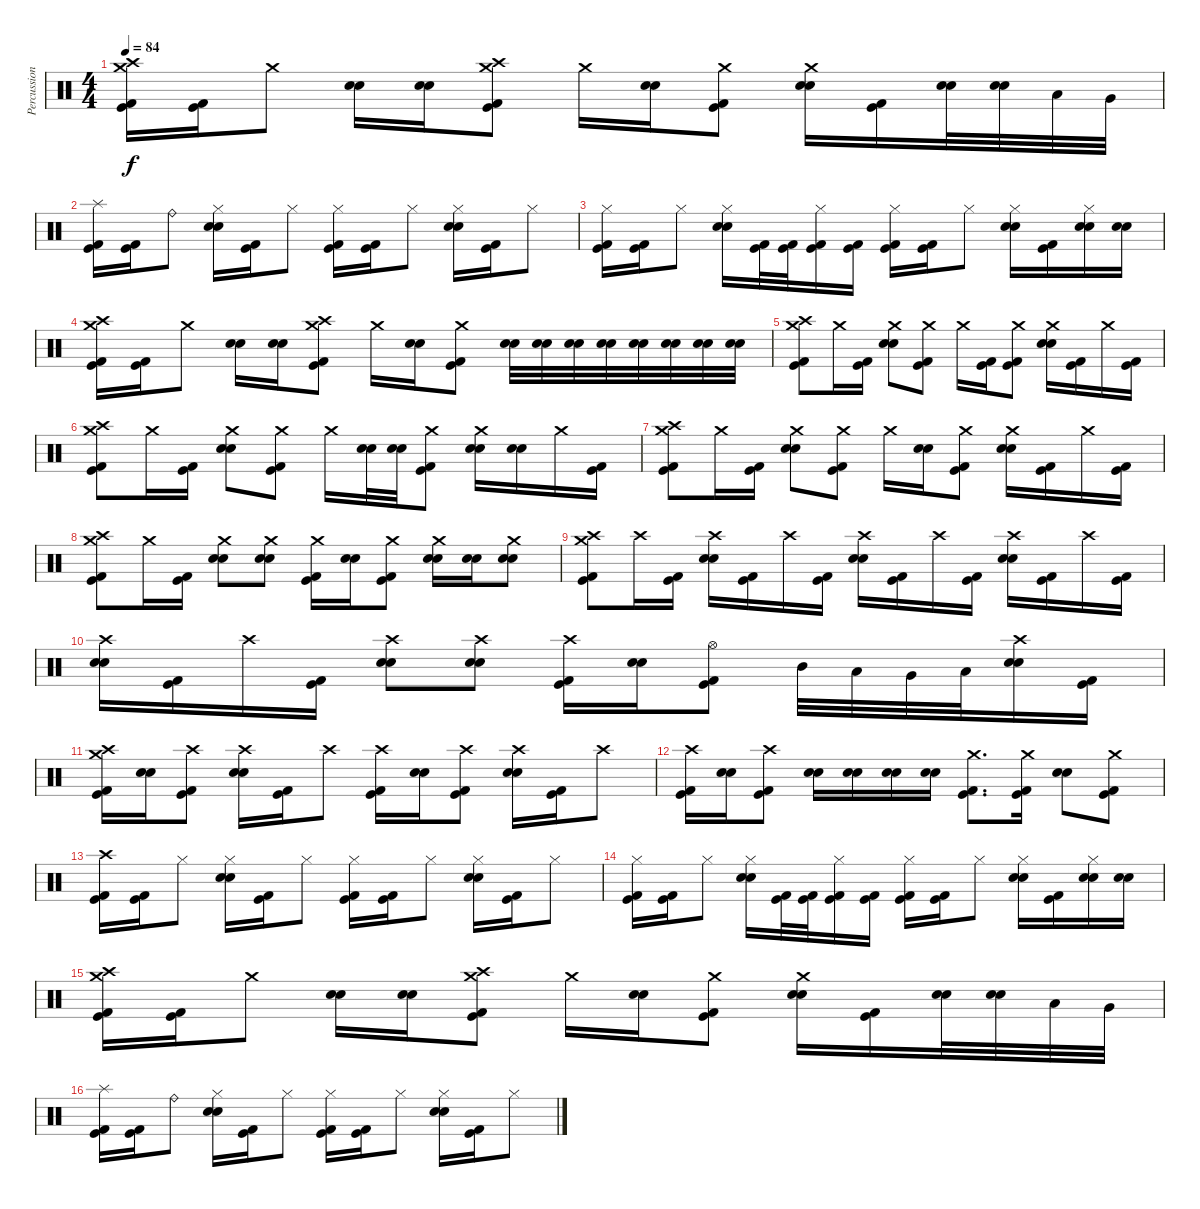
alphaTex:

\track ("Percussion" "Percussion") {instrument percussion}
\staff {score}
\articulation defaults
\ts (4 4)
\tempo 84
\clef neutral
\ks c
("Crash high (hit)" "Crash medium (hit)" "Kick (hit)" "Kick (hit) 2").16{dy f} ("Kick (hit)" "Kick (hit) 2").16 "Crash medium (hit)".8 ("Electric Snare (hit)" "Snare (hit) 2").16 ("Electric Snare (hit)" "Snare (hit) 2").16 ("Crash high (hit)" "Crash medium (hit)" "Kick (hit)" "Kick (hit) 2").8 "Crash medium (hit)".16 ("Electric Snare (hit)" "Snare (hit) 2").16 ("Crash medium (hit)" "Kick (hit)" "Kick (hit) 2").8 ("Crash medium (hit)" "Electric Snare (hit)" "Snare (hit) 2").16 ("Kick (hit)" "Kick (hit) 2").16 ("Electric Snare (hit)" "Snare (hit) 2").32 ("Electric Snare (hit)" "Snare (hit) 2").32 "Low Tom (hit)".32 "Very Low Tom (hit)".32 |
("Splash (hit)" "Kick (hit)" "Kick (hit) 2").16{balance 2} ("Kick (hit)" "Kick (hit) 2").16 "Ride (bell)".8{balance 14} ("Hi-Hat (closed)" "Electric Snare (hit)" "Snare (hit) 2").16{balance 8} ("Kick (hit)" "Kick (hit) 2").16 "Hi-Hat (closed)".8 ("Hi-Hat (closed)" "Kick (hit)" "Kick (hit) 2").16 ("Kick (hit)" "Kick (hit) 2").16 "Hi-Hat (closed)".8 ("Hi-Hat (closed)" "Electric Snare (hit)" "Snare (hit) 2").16 ("Kick (hit)" "Kick (hit) 2").16 "Hi-Hat (closed)".8 |
("Hi-Hat (closed)" "Kick (hit)" "Kick (hit) 2").16 ("Kick (hit)" "Kick (hit) 2").16 "Hi-Hat (closed)".8 ("Hi-Hat (closed)" "Electric Snare (hit)" "Snare (hit) 2").16 ("Kick (hit)" "Kick (hit) 2").32 ("Kick (hit)" "Kick (hit) 2").32 ("Hi-Hat (closed)" "Kick (hit)" "Kick (hit) 2").16 ("Kick (hit)" "Kick (hit) 2").16 ("Hi-Hat (closed)" "Kick (hit)" "Kick (hit) 2").16 ("Kick (hit)" "Kick (hit) 2").16 "Hi-Hat (closed)".8 ("Hi-Hat (closed)" "Electric Snare (hit)" "Snare (hit) 2").16 ("Kick (hit)" "Kick (hit) 2").16 ("Hi-Hat (closed)" "Electric Snare (hit)" "Snare (hit) 2").16 ("Electric Snare (hit)" "Snare (hit) 2").16 |
("Crash high (hit)" "Crash medium (hit)" "Kick (hit)" "Kick (hit) 2").16 ("Kick (hit)" "Kick (hit) 2").16 "Crash medium (hit)".8 ("Electric Snare (hit)" "Snare (hit) 2").16 ("Electric Snare (hit)" "Snare (hit) 2").16 ("Crash high (hit)" "Crash medium (hit)" "Kick (hit)" "Kick (hit) 2").8 "Crash medium (hit)".16 ("Electric Snare (hit)" "Snare (hit) 2").16 ("Crash medium (hit)" "Kick (hit)" "Kick (hit) 2").8 ("Electric Snare (hit)" "Snare (hit) 2").32 ("Electric Snare (hit)" "Snare (hit) 2").32 ("Electric Snare (hit)" "Snare (hit) 2").32 ("Electric Snare (hit)" "Snare (hit) 2").32 ("Electric Snare (hit)" "Snare (hit) 2").32 ("Electric Snare (hit)" "Snare (hit) 2").32 ("Electric Snare (hit)" "Snare (hit) 2").32 ("Electric Snare (hit)" "Snare (hit) 2").32 |
("Crash high (hit)" "Crash medium (hit)" "Kick (hit)" "Kick (hit) 2").8 "Crash medium (hit)".16 ("Kick (hit)" "Kick (hit) 2").16 ("Crash medium (hit)" "Electric Snare (hit)" "Snare (hit) 2").8 ("Crash medium (hit)" "Kick (hit)" "Kick (hit) 2").8 "Crash medium (hit)".16 ("Kick (hit)" "Kick (hit) 2").16 ("Crash medium (hit)" "Kick (hit)" "Kick (hit) 2").8 ("Crash medium (hit)" "Electric Snare (hit)" "Snare (hit) 2").16 ("Kick (hit)" "Kick (hit) 2").16 "Crash medium (hit)".16 ("Kick (hit)" "Kick (hit) 2").16 |
("Crash high (hit)" "Crash medium (hit)" "Kick (hit)" "Kick (hit) 2").8 "Crash medium (hit)".16 ("Kick (hit)" "Kick (hit) 2").16 ("Crash medium (hit)" "Electric Snare (hit)" "Snare (hit) 2").8 ("Crash medium (hit)" "Kick (hit)" "Kick (hit) 2").8 "Crash medium (hit)".16 ("Electric Snare (hit)" "Snare (hit) 2").32 ("Electric Snare (hit)" "Snare (hit) 2").32 ("Crash medium (hit)" "Kick (hit)" "Kick (hit) 2").8 ("Crash medium (hit)" "Electric Snare (hit)" "Snare (hit) 2").16 ("Electric Snare (hit)" "Snare (hit) 2").16 "Crash medium (hit)".16 ("Kick (hit)" "Kick (hit) 2").16 |
("Crash high (hit)" "Crash medium (hit)" "Kick (hit)" "Kick (hit) 2").8 "Crash medium (hit)".16 ("Kick (hit)" "Kick (hit) 2").16 ("Crash medium (hit)" "Electric Snare (hit)" "Snare (hit) 2").8 ("Crash medium (hit)" "Kick (hit)" "Kick (hit) 2").8 "Crash medium (hit)".16 ("Electric Snare (hit)" "Snare (hit) 2").16 ("Crash medium (hit)" "Kick (hit)" "Kick (hit) 2").8 ("Crash medium (hit)" "Electric Snare (hit)" "Snare (hit) 2").16 ("Kick (hit)" "Kick (hit) 2").16 "Crash medium (hit)".16 ("Kick (hit)" "Kick (hit) 2").16 |
("Crash high (hit)" "Crash medium (hit)" "Kick (hit)" "Kick (hit) 2").8 "Crash medium (hit)".16 ("Kick (hit)" "Kick (hit) 2").16 ("Crash medium (hit)" "Electric Snare (hit)" "Snare (hit) 2").8 ("Crash medium (hit)" "Electric Snare (hit)" "Snare (hit) 2").8 ("Crash medium (hit)" "Kick (hit)" "Kick (hit) 2").16 ("Electric Snare (hit)" "Snare (hit) 2").16 ("Crash medium (hit)" "Kick (hit)" "Kick (hit) 2").8 ("Crash medium (hit)" "Electric Snare (hit)" "Snare (hit) 2").16 ("Electric Snare (hit)" "Snare (hit) 2").16 ("Crash medium (hit)" "Electric Snare (hit)" "Snare (hit) 2").8 |
("Crash high (hit)" "Crash medium (hit)" "Kick (hit)" "Kick (hit) 2").8 "Crash high (hit)".16 ("Kick (hit)" "Kick (hit) 2").16 ("Crash high (hit)" "Electric Snare (hit)" "Snare (hit) 2").16 ("Kick (hit)" "Kick (hit) 2").16 "Crash high (hit)".16 ("Kick (hit)" "Kick (hit) 2").16 ("Crash high (hit)" "Electric Snare (hit)" "Snare (hit) 2").16 ("Kick (hit)" "Kick (hit) 2").16 "Crash high (hit)".16 ("Kick (hit)" "Kick (hit) 2").16 ("Crash high (hit)" "Electric Snare (hit)" "Snare (hit) 2").16 ("Kick (hit)" "Kick (hit) 2").16 "Crash high (hit)".16 ("Kick (hit)" "Kick (hit) 2").16 |
("Crash high (hit)" "Electric Snare (hit)" "Snare (hit) 2").16 ("Kick (hit)" "Kick (hit) 2").16 "Crash high (hit)".16 ("Kick (hit)" "Kick (hit) 2").16 ("Crash high (hit)" "Electric Snare (hit)" "Snare (hit) 2").8 ("Crash high (hit)" "Electric Snare (hit)" "Snare (hit) 2").8 ("Crash high (hit)" "Kick (hit)" "Kick (hit) 2").16 ("Electric Snare (hit)" "Snare (hit) 2").16 ("Hi-Hat (open)" "Kick (hit)" "Kick (hit) 2").8 "Mid Tom (hit)".32 "Low Tom (hit)".32 "Very Low Tom (hit)".32 "Low Floor Tom (hit)".32 ("Crash high (hit)" "Electric Snare (hit)" "Snare (hit) 2").16 ("Kick (hit)" "Kick (hit) 2").16 |
("Crash high (hit)" "Crash medium (hit)" "Kick (hit)" "Kick (hit) 2").16 ("Electric Snare (hit)" "Snare (hit) 2").16 ("Crash high (hit)" "Kick (hit)" "Kick (hit) 2").8 ("Crash high (hit)" "Electric Snare (hit)" "Snare (hit) 2").16 ("Kick (hit)" "Kick (hit) 2").16 "Crash high (hit)".8 ("Crash high (hit)" "Kick (hit)" "Kick (hit) 2").16 ("Electric Snare (hit)" "Snare (hit) 2").16 ("Crash high (hit)" "Kick (hit)" "Kick (hit) 2").8 ("Crash high (hit)" "Electric Snare (hit)" "Snare (hit) 2").16 ("Kick (hit)" "Kick (hit) 2").16 "Crash high (hit)".8 |
("Crash high (hit)" "Kick (hit)" "Kick (hit) 2").16 ("Electric Snare (hit)" "Snare (hit) 2").16 ("Crash high (hit)" "Kick (hit)" "Kick (hit) 2").8 ("Electric Snare (hit)" "Snare (hit) 2").16 ("Electric Snare (hit)" "Snare (hit) 2").16 ("Electric Snare (hit)" "Snare (hit) 2").16 ("Electric Snare (hit)" "Snare (hit) 2").16 ("Crash medium (hit)" "Kick (hit)" "Kick (hit) 2").8{d} ("Crash medium (hit)" "Kick (hit)" "Kick (hit) 2").16 ("Electric Snare (hit)" "Snare (hit) 2").8 ("Crash medium (hit)" "Kick (hit)" "Kick (hit) 2").8 |
("Crash high (hit)" "Kick (hit)" "Kick (hit) 2").16 ("Kick (hit)" "Kick (hit) 2").16 "Hi-Hat (closed)".8 ("Hi-Hat (closed)" "Electric Snare (hit)" "Snare (hit) 2").16 ("Kick (hit)" "Kick (hit) 2").16 "Hi-Hat (closed)".8 ("Hi-Hat (closed)" "Kick (hit)" "Kick (hit) 2").16 ("Kick (hit)" "Kick (hit) 2").16 "Hi-Hat (closed)".8 ("Hi-Hat (closed)" "Electric Snare (hit)" "Snare (hit) 2").16 ("Kick (hit)" "Kick (hit) 2").16 "Hi-Hat (closed)".8 |
("Hi-Hat (closed)" "Kick (hit)" "Kick (hit) 2").16 ("Kick (hit)" "Kick (hit) 2").16 "Hi-Hat (closed)".8 ("Hi-Hat (closed)" "Electric Snare (hit)" "Snare (hit) 2").16 ("Kick (hit)" "Kick (hit) 2").32 ("Kick (hit)" "Kick (hit) 2").32 ("Hi-Hat (closed)" "Kick (hit)" "Kick (hit) 2").16 ("Kick (hit)" "Kick (hit) 2").16 ("Hi-Hat (closed)" "Kick (hit)" "Kick (hit) 2").16 ("Kick (hit)" "Kick (hit) 2").16 "Hi-Hat (closed)".8 ("Hi-Hat (closed)" "Electric Snare (hit)" "Snare (hit) 2").16 ("Kick (hit)" "Kick (hit) 2").16 ("Hi-Hat (closed)" "Electric Snare (hit)" "Snare (hit) 2").16 ("Electric Snare (hit)" "Snare (hit) 2").16 |
("Crash high (hit)" "Crash medium (hit)" "Kick (hit)" "Kick (hit) 2").16 ("Kick (hit)" "Kick (hit) 2").16 "Crash medium (hit)".8 ("Electric Snare (hit)" "Snare (hit) 2").16 ("Electric Snare (hit)" "Snare (hit) 2").16 ("Crash high (hit)" "Crash medium (hit)" "Kick (hit)" "Kick (hit) 2").8 "Crash medium (hit)".16 ("Electric Snare (hit)" "Snare (hit) 2").16 ("Crash medium (hit)" "Kick (hit)" "Kick (hit) 2").8 ("Crash medium (hit)" "Electric Snare (hit)" "Snare (hit) 2").16 ("Kick (hit)" "Kick (hit) 2").16 ("Electric Snare (hit)" "Snare (hit) 2").32 ("Electric Snare (hit)" "Snare (hit) 2").32 "Low Tom (hit)".32 "Very Low Tom (hit)".32 |
("Splash (hit)" "Kick (hit)" "Kick (hit) 2").16{balance 2} ("Kick (hit)" "Kick (hit) 2").16 "Ride (bell)".8{balance 14} ("Hi-Hat (closed)" "Electric Snare (hit)" "Snare (hit) 2").16{balance 8} ("Kick (hit)" "Kick (hit) 2").16 "Hi-Hat (closed)".8 ("Hi-Hat (closed)" "Kick (hit)" "Kick (hit) 2").16 ("Kick (hit)" "Kick (hit) 2").16 "Hi-Hat (closed)".8 ("Hi-Hat (closed)" "Electric Snare (hit)" "Snare (hit) 2").16 ("Kick (hit)" "Kick (hit) 2").16 "Hi-Hat (closed)".8
